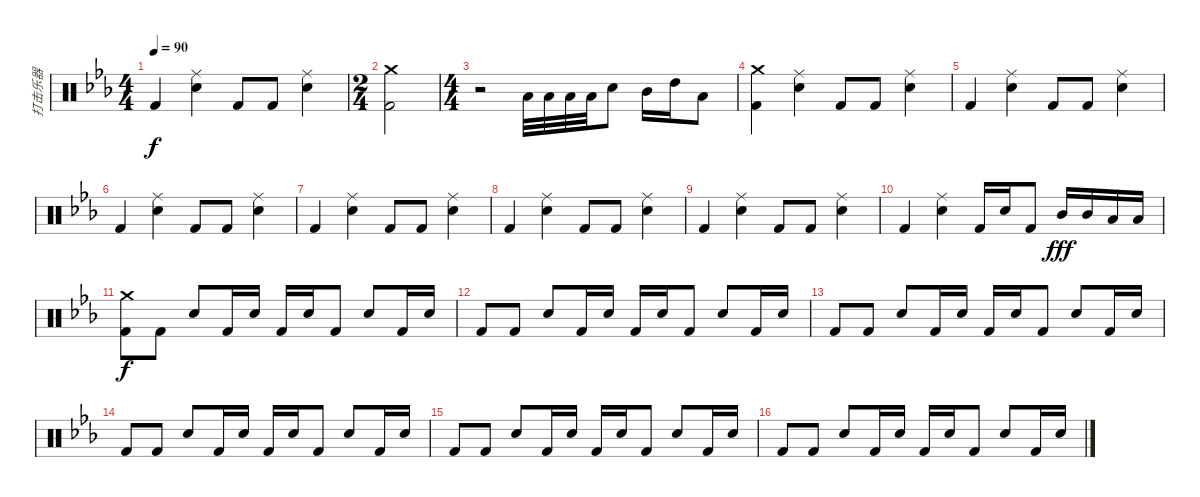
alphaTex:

\track ("打击乐器" "打击乐器") {instrument percussion}
\staff {score}
\articulation defaults
\ts (4 4)
\tempo 90
\clef neutral
\ks eb "Kick (hit) 2".4{dy f}
("Ride (middle)" "Electric Snare (hit)").4 "Kick (hit) 2".8 "Kick (hit) 2".8 ("Ride (middle)" "Electric Snare (hit)").4 |
\ts (2 4)
("Crash medium (hit)" "Kick (hit) 2").2 |
\ts (4 4)
r.2 "Low Tom (hit)".32 "Low Tom (hit)".32 "Low Tom (hit)".32{volume 14} "Low Tom (hit)".32 "Electric Snare (hit)".8 "Mid Tom (hit)".16 "High Tom (hit)".16 "Low Tom (hit)".8 |
("Crash medium (hit)" "Kick (hit) 2").4 ("Ride (middle)" "Electric Snare (hit)").4{volume 11} "Kick (hit) 2".8 "Kick (hit) 2".8 ("Ride (middle)" "Electric Snare (hit)").4 |
"Kick (hit) 2".4 ("Ride (middle)" "Electric Snare (hit)").4 "Kick (hit) 2".8 "Kick (hit) 2".8 ("Ride (middle)" "Electric Snare (hit)").4 |
"Kick (hit) 2".4 ("Ride (middle)" "Electric Snare (hit)").4 "Kick (hit) 2".8 "Kick (hit) 2".8 ("Ride (middle)" "Electric Snare (hit)").4 |
"Kick (hit) 2".4 ("Ride (middle)" "Electric Snare (hit)").4 "Kick (hit) 2".8 "Kick (hit) 2".8 ("Ride (middle)" "Electric Snare (hit)").4 |
"Kick (hit) 2".4 ("Ride (middle)" "Electric Snare (hit)").4 "Kick (hit) 2".8 "Kick (hit) 2".8 ("Ride (middle)" "Electric Snare (hit)").4 |
"Kick (hit) 2".4 ("Ride (middle)" "Electric Snare (hit)").4 "Kick (hit) 2".8 "Kick (hit) 2".8 ("Ride (middle)" "Electric Snare (hit)").4 |
"Kick (hit) 2".4 ("Ride (middle)" "Electric Snare (hit)").4 "Kick (hit) 2".16 "Electric Snare (hit)".16 "Kick (hit) 2".8 "Mid Tom (hit)".16{dy fff} "Mid Tom (hit)".16 "Low Tom (hit)".16 "Low Tom (hit)".16 |
("Crash medium (hit)" "Kick (hit) 2").8{dy f} "Kick (hit) 2".8 "Electric Snare (hit)".8 "Kick (hit) 2".16 "Electric Snare (hit)".16 "Kick (hit) 2".16 "Electric Snare (hit)".16 "Kick (hit) 2".8 "Electric Snare (hit)".8 "Kick (hit) 2".16 "Electric Snare (hit)".16 |
"Kick (hit) 2".8 "Kick (hit) 2".8 "Electric Snare (hit)".8 "Kick (hit) 2".16 "Electric Snare (hit)".16 "Kick (hit) 2".16 "Electric Snare (hit)".16 "Kick (hit) 2".8 "Electric Snare (hit)".8 "Kick (hit) 2".16 "Electric Snare (hit)".16 |
"Kick (hit) 2".8 "Kick (hit) 2".8 "Electric Snare (hit)".8 "Kick (hit) 2".16 "Electric Snare (hit)".16 "Kick (hit) 2".16 "Electric Snare (hit)".16 "Kick (hit) 2".8 "Electric Snare (hit)".8 "Kick (hit) 2".16 "Electric Snare (hit)".16 |
"Kick (hit) 2".8 "Kick (hit) 2".8 "Electric Snare (hit)".8 "Kick (hit) 2".16 "Electric Snare (hit)".16 "Kick (hit) 2".16 "Electric Snare (hit)".16 "Kick (hit) 2".8 "Electric Snare (hit)".8 "Kick (hit) 2".16 "Electric Snare (hit)".16 |
"Kick (hit) 2".8 "Kick (hit) 2".8 "Electric Snare (hit)".8 "Kick (hit) 2".16 "Electric Snare (hit)".16 "Kick (hit) 2".16 "Electric Snare (hit)".16 "Kick (hit) 2".8 "Electric Snare (hit)".8 "Kick (hit) 2".16 "Electric Snare (hit)".16 |
"Kick (hit) 2".8 "Kick (hit) 2".8 "Electric Snare (hit)".8 "Kick (hit) 2".16 "Electric Snare (hit)".16 "Kick (hit) 2".16 "Electric Snare (hit)".16 "Kick (hit) 2".8 "Electric Snare (hit)".8 "Kick (hit) 2".16 "Electric Snare (hit)".16
